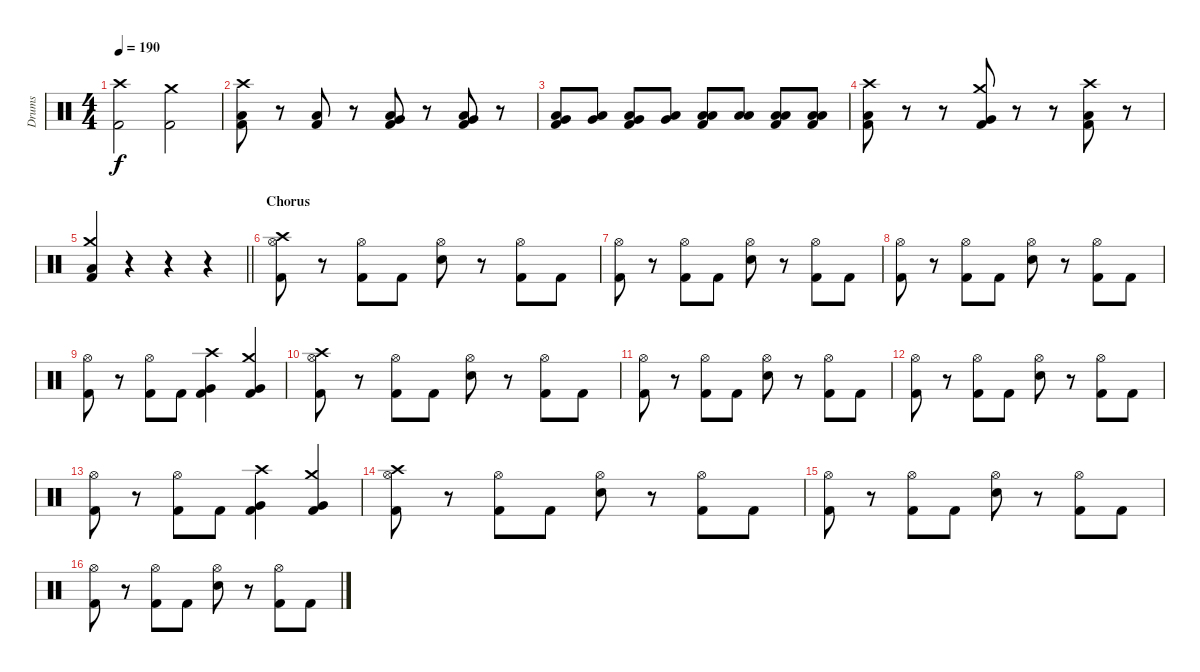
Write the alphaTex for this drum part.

\track ("Drums" "Drums") {instrument percussion}
\staff {score}
\articulation defaults
\ts (4 4)
\tempo 190
\clef neutral
\ks c
("Crash high (hit)" "Kick (hit) 2").2{dy f} ("Crash medium (hit)" "Kick (hit) 2").2 |
("Crash high (hit)" "Low Floor Tom (hit)" "Kick (hit) 2").8 r.8 ("Low Floor Tom (hit)" "Kick (hit) 2").8 r.8 ("Very Low Tom (hit)" "Low Floor Tom (hit)" "Kick (hit) 2").8 r.8 ("Very Low Tom (hit)" "Low Floor Tom (hit)" "Kick (hit) 2").8 r.8 |
("Very Low Tom (hit)" "Low Floor Tom (hit)" "Kick (hit) 2").8 ("Very Low Tom (hit)" "Low Floor Tom (hit)").8 ("Very Low Tom (hit)" "Low Floor Tom (hit)" "Kick (hit) 2").8 ("Very Low Tom (hit)" "Low Floor Tom (hit)").8 ("Low Tom (hit)" "Low Floor Tom (hit)" "Kick (hit) 2").8 ("Low Tom (hit)" "Low Floor Tom (hit)").8 ("Low Tom (hit)" "Low Floor Tom (hit)" "Kick (hit) 2").8 ("Low Tom (hit)" "Low Floor Tom (hit)" "Kick (hit) 2").8 |
("Crash high (hit)" "Low Tom (hit)" "Kick (hit) 2").8 r.8 r.8 ("Crash medium (hit)" "Very Low Tom (hit)" "Kick (hit) 2").8 r.8 r.8 ("Crash high (hit)" "Low Floor Tom (hit)" "Kick (hit) 2").8 r.8 |
\barLineRight lightlight
("Crash medium (hit)" "Low Floor Tom (hit)" "Kick (hit) 2").4 r.4 r.4 r.4 |
\section ("" "Chorus")
("Crash high (hit)" "Hi-Hat (open)" "Kick (hit) 2").8 r.8 ("Hi-Hat (open)" "Kick (hit) 2").8 "Kick (hit) 2".8 ("Hi-Hat (open)" "Snare (hit) 2").8 r.8 ("Hi-Hat (open)" "Kick (hit) 2").8 "Kick (hit) 2".8 |
("Hi-Hat (open)" "Kick (hit) 2").8 r.8 ("Hi-Hat (open)" "Kick (hit) 2").8 "Kick (hit) 2".8 ("Hi-Hat (open)" "Snare (hit) 2").8 r.8 ("Hi-Hat (open)" "Kick (hit) 2").8 "Kick (hit) 2".8 |
("Hi-Hat (open)" "Kick (hit) 2").8 r.8 ("Hi-Hat (open)" "Kick (hit) 2").8 "Kick (hit) 2".8 ("Hi-Hat (open)" "Snare (hit) 2").8 r.8 ("Hi-Hat (open)" "Kick (hit) 2").8 "Kick (hit) 2".8 |
("Hi-Hat (open)" "Kick (hit) 2").8 r.8 ("Hi-Hat (open)" "Kick (hit) 2").8 "Kick (hit) 2".8 ("Crash high (hit)" "Very Low Tom (hit)" "Kick (hit) 2").4 ("Crash medium (hit)" "Very Low Tom (hit)" "Kick (hit) 2").4 |
("Crash high (hit)" "Hi-Hat (open)" "Kick (hit) 2").8 r.8 ("Hi-Hat (open)" "Kick (hit) 2").8 "Kick (hit) 2".8 ("Hi-Hat (open)" "Snare (hit) 2").8 r.8 ("Hi-Hat (open)" "Kick (hit) 2").8 "Kick (hit) 2".8 |
("Hi-Hat (open)" "Kick (hit) 2").8 r.8 ("Hi-Hat (open)" "Kick (hit) 2").8 "Kick (hit) 2".8 ("Hi-Hat (open)" "Snare (hit) 2").8 r.8 ("Hi-Hat (open)" "Kick (hit) 2").8 "Kick (hit) 2".8 |
("Hi-Hat (open)" "Kick (hit) 2").8 r.8 ("Hi-Hat (open)" "Kick (hit) 2").8 "Kick (hit) 2".8 ("Hi-Hat (open)" "Snare (hit) 2").8 r.8 ("Hi-Hat (open)" "Kick (hit) 2").8 "Kick (hit) 2".8 |
("Hi-Hat (open)" "Kick (hit) 2").8 r.8 ("Hi-Hat (open)" "Kick (hit) 2").8 "Kick (hit) 2".8 ("Crash high (hit)" "Very Low Tom (hit)" "Kick (hit) 2").4 ("Crash medium (hit)" "Very Low Tom (hit)" "Kick (hit) 2").4 |
("Crash high (hit)" "Hi-Hat (open)" "Kick (hit) 2").8 r.8 ("Hi-Hat (open)" "Kick (hit) 2").8 "Kick (hit) 2".8 ("Hi-Hat (open)" "Snare (hit) 2").8 r.8 ("Hi-Hat (open)" "Kick (hit) 2").8 "Kick (hit) 2".8 |
("Hi-Hat (open)" "Kick (hit) 2").8 r.8 ("Hi-Hat (open)" "Kick (hit) 2").8 "Kick (hit) 2".8 ("Hi-Hat (open)" "Snare (hit) 2").8 r.8 ("Hi-Hat (open)" "Kick (hit) 2").8 "Kick (hit) 2".8 |
("Hi-Hat (open)" "Kick (hit) 2").8 r.8 ("Hi-Hat (open)" "Kick (hit) 2").8 "Kick (hit) 2".8 ("Hi-Hat (open)" "Snare (hit) 2").8 r.8 ("Hi-Hat (open)" "Kick (hit) 2").8 "Kick (hit) 2".8
